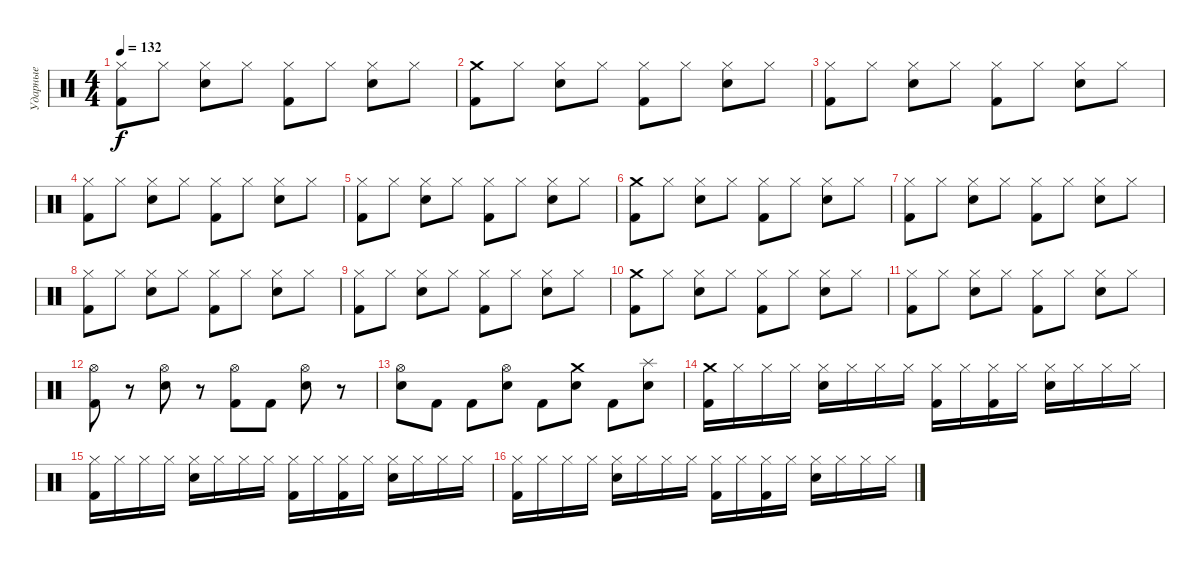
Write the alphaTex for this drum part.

\track ("Ударные" "Ударные") {instrument percussion}
\staff {score}
\articulation defaults
\ts (4 4)
\tempo 132
\clef neutral
\ks c
("Hi-Hat (closed)" "Kick (hit) 2").8{dy f} "Hi-Hat (closed)".8 ("Hi-Hat (closed)" "Electric Snare (hit)").8 "Hi-Hat (closed)".8 ("Hi-Hat (closed)" "Kick (hit) 2").8 "Hi-Hat (closed)".8 ("Hi-Hat (closed)" "Electric Snare (hit)").8 "Hi-Hat (closed)".8 |
("Crash medium (hit)" "Kick (hit) 2").8 "Hi-Hat (closed)".8 ("Hi-Hat (closed)" "Electric Snare (hit)").8 "Hi-Hat (closed)".8 ("Hi-Hat (closed)" "Kick (hit) 2").8 "Hi-Hat (closed)".8 ("Hi-Hat (closed)" "Electric Snare (hit)").8 "Hi-Hat (closed)".8 |
("Hi-Hat (closed)" "Kick (hit) 2").8 "Hi-Hat (closed)".8 ("Hi-Hat (closed)" "Electric Snare (hit)").8 "Hi-Hat (closed)".8 ("Hi-Hat (closed)" "Kick (hit) 2").8 "Hi-Hat (closed)".8 ("Hi-Hat (closed)" "Electric Snare (hit)").8 "Hi-Hat (closed)".8 |
("Hi-Hat (closed)" "Kick (hit) 2").8 "Hi-Hat (closed)".8 ("Hi-Hat (closed)" "Electric Snare (hit)").8 "Hi-Hat (closed)".8 ("Hi-Hat (closed)" "Kick (hit) 2").8 "Hi-Hat (closed)".8 ("Hi-Hat (closed)" "Electric Snare (hit)").8 "Hi-Hat (closed)".8 |
("Hi-Hat (closed)" "Kick (hit) 2").8 "Hi-Hat (closed)".8 ("Hi-Hat (closed)" "Electric Snare (hit)").8 "Hi-Hat (closed)".8 ("Hi-Hat (closed)" "Kick (hit) 2").8 "Hi-Hat (closed)".8 ("Hi-Hat (closed)" "Electric Snare (hit)").8 "Hi-Hat (closed)".8 |
("Crash medium (hit)" "Kick (hit) 2").8 "Hi-Hat (closed)".8 ("Hi-Hat (closed)" "Electric Snare (hit)").8 "Hi-Hat (closed)".8 ("Hi-Hat (closed)" "Kick (hit) 2").8 "Hi-Hat (closed)".8 ("Hi-Hat (closed)" "Electric Snare (hit)").8 "Hi-Hat (closed)".8 |
("Hi-Hat (closed)" "Kick (hit) 2").8 "Hi-Hat (closed)".8 ("Hi-Hat (closed)" "Electric Snare (hit)").8 "Hi-Hat (closed)".8 ("Hi-Hat (closed)" "Kick (hit) 2").8 "Hi-Hat (closed)".8 ("Hi-Hat (closed)" "Electric Snare (hit)").8 "Hi-Hat (closed)".8 |
("Hi-Hat (closed)" "Kick (hit) 2").8 "Hi-Hat (closed)".8 ("Hi-Hat (closed)" "Electric Snare (hit)").8 "Hi-Hat (closed)".8 ("Hi-Hat (closed)" "Kick (hit) 2").8 "Hi-Hat (closed)".8 ("Hi-Hat (closed)" "Electric Snare (hit)").8 "Hi-Hat (closed)".8 |
("Hi-Hat (closed)" "Kick (hit) 2").8 "Hi-Hat (closed)".8 ("Hi-Hat (closed)" "Electric Snare (hit)").8 "Hi-Hat (closed)".8 ("Hi-Hat (closed)" "Kick (hit) 2").8 "Hi-Hat (closed)".8 ("Hi-Hat (closed)" "Electric Snare (hit)").8 "Hi-Hat (closed)".8 |
("Crash medium (hit)" "Kick (hit) 2").8 "Hi-Hat (closed)".8 ("Hi-Hat (closed)" "Electric Snare (hit)").8 "Hi-Hat (closed)".8 ("Hi-Hat (closed)" "Kick (hit) 2").8 "Hi-Hat (closed)".8 ("Hi-Hat (closed)" "Electric Snare (hit)").8 "Hi-Hat (closed)".8 |
("Hi-Hat (closed)" "Kick (hit) 2").8 "Hi-Hat (closed)".8 ("Hi-Hat (closed)" "Electric Snare (hit)").8 "Hi-Hat (closed)".8 ("Hi-Hat (closed)" "Kick (hit) 2").8 "Hi-Hat (closed)".8 ("Hi-Hat (closed)" "Electric Snare (hit)").8 "Hi-Hat (closed)".8 |
("Hi-Hat (open)" "Kick (hit) 2").8 r.8 ("Hi-Hat (open)" "Electric Snare (hit)").8 r.8 ("Hi-Hat (open)" "Kick (hit) 2").8 "Kick (hit) 2".8 ("Hi-Hat (open)" "Electric Snare (hit)").8 r.8 |
("Hi-Hat (open)" "Electric Snare (hit)").8 "Kick (hit) 2".8 "Kick (hit) 2".8 ("Hi-Hat (open)" "Electric Snare (hit)").8 "Kick (hit) 2".8 ("Crash medium (hit)" "Electric Snare (hit)").8 "Kick (hit) 2".8 ("Splash (hit)" "Electric Snare (hit)").8 |
("Crash medium (hit)" "Kick (hit) 2").16 "Hi-Hat (closed)".16 "Hi-Hat (closed)".16 "Hi-Hat (closed)".16 ("Hi-Hat (closed)" "Electric Snare (hit)").16 "Hi-Hat (closed)".16 "Hi-Hat (closed)".16 "Hi-Hat (closed)".16 ("Hi-Hat (closed)" "Kick (hit) 2").16 "Hi-Hat (closed)".16 ("Hi-Hat (closed)" "Kick (hit) 2").16 "Hi-Hat (closed)".16 ("Hi-Hat (closed)" "Electric Snare (hit)").16 "Hi-Hat (closed)".16 "Hi-Hat (closed)".16 "Hi-Hat (closed)".16 |
("Hi-Hat (closed)" "Kick (hit) 2").16 "Hi-Hat (closed)".16 "Hi-Hat (closed)".16 "Hi-Hat (closed)".16 ("Hi-Hat (closed)" "Electric Snare (hit)").16 "Hi-Hat (closed)".16 "Hi-Hat (closed)".16 "Hi-Hat (closed)".16 ("Hi-Hat (closed)" "Kick (hit) 2").16 "Hi-Hat (closed)".16 ("Hi-Hat (closed)" "Kick (hit) 2").16 "Hi-Hat (closed)".16 ("Hi-Hat (closed)" "Electric Snare (hit)").16 "Hi-Hat (closed)".16 "Hi-Hat (closed)".16 "Hi-Hat (closed)".16 |
("Hi-Hat (closed)" "Kick (hit) 2").16 "Hi-Hat (closed)".16 "Hi-Hat (closed)".16 "Hi-Hat (closed)".16 ("Hi-Hat (closed)" "Electric Snare (hit)").16 "Hi-Hat (closed)".16 "Hi-Hat (closed)".16 "Hi-Hat (closed)".16 ("Hi-Hat (closed)" "Kick (hit) 2").16 "Hi-Hat (closed)".16 ("Hi-Hat (closed)" "Kick (hit) 2").16 "Hi-Hat (closed)".16 ("Hi-Hat (closed)" "Electric Snare (hit)").16 "Hi-Hat (closed)".16 "Hi-Hat (closed)".16 "Hi-Hat (closed)".16
